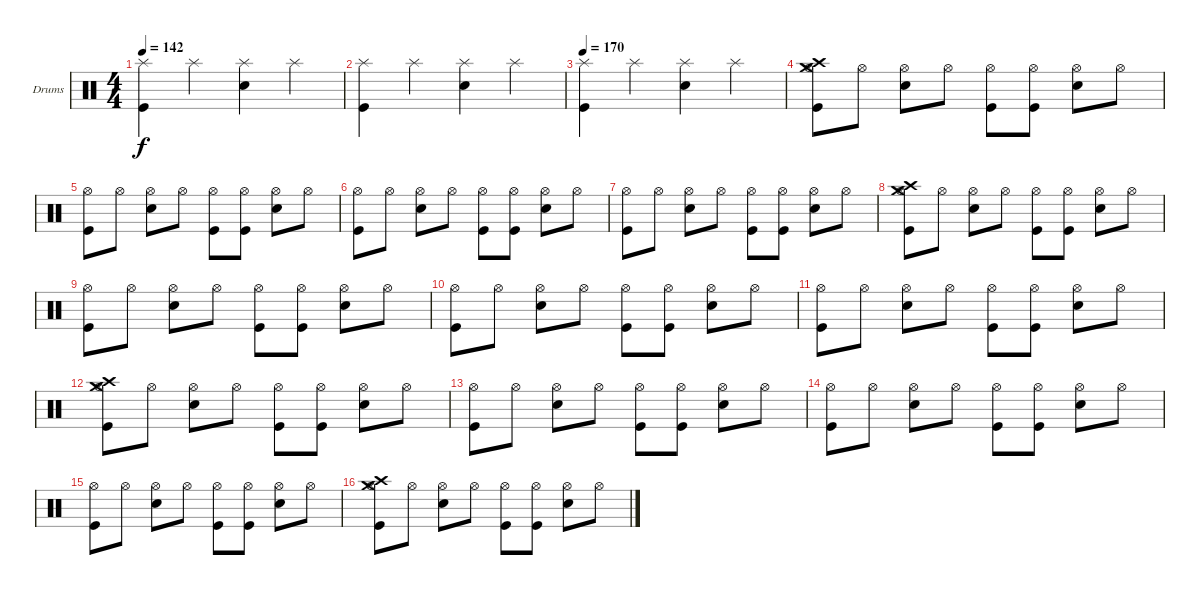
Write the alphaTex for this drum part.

\bracketExtendMode groupsimilarinstruments
\firstSystemTrackNameOrientation horizontal
\otherSystemsTrackNameOrientation horizontal
\track ("Drumkit" "Drums") {instrument percussion}
\staff {score}
\articulation defaults
\ts (4 4)
\tempo 142
\clef neutral
\ks c
("Splash (hit)" "Kick (hit)").4{dy f} "Splash (hit)".4 ("Splash (hit)" "Snare (hit) 2").4 "Splash (hit)".4 |
("Splash (hit)" "Kick (hit)").4 "Splash (hit)".4 ("Splash (hit)" "Snare (hit) 2").4 "Splash (hit)".4 |
\tempo 170
("Splash (hit)" "Kick (hit)").4 "Splash (hit)".4 ("Splash (hit)" "Snare (hit) 2").4 "Splash (hit)".4 |
("Crash high (hit)" "Crash medium (hit)" "Hi-Hat (open)" "Kick (hit)").8 "Hi-Hat (open)".8 ("Hi-Hat (open)" "Snare (hit) 2").8 "Hi-Hat (open)".8 ("Hi-Hat (open)" "Kick (hit)").8 ("Hi-Hat (open)" "Kick (hit)").8 ("Hi-Hat (open)" "Snare (hit) 2").8 "Hi-Hat (open)".8 |
("Hi-Hat (open)" "Kick (hit)").8 "Hi-Hat (open)".8 ("Hi-Hat (open)" "Snare (hit) 2").8 "Hi-Hat (open)".8 ("Hi-Hat (open)" "Kick (hit)").8 ("Hi-Hat (open)" "Kick (hit)").8 ("Hi-Hat (open)" "Snare (hit) 2").8 "Hi-Hat (open)".8 |
("Hi-Hat (open)" "Kick (hit)").8 "Hi-Hat (open)".8 ("Hi-Hat (open)" "Snare (hit) 2").8 "Hi-Hat (open)".8 ("Hi-Hat (open)" "Kick (hit)").8 ("Hi-Hat (open)" "Kick (hit)").8 ("Hi-Hat (open)" "Snare (hit) 2").8 "Hi-Hat (open)".8 |
("Hi-Hat (open)" "Kick (hit)").8 "Hi-Hat (open)".8 ("Hi-Hat (open)" "Snare (hit) 2").8 "Hi-Hat (open)".8 ("Hi-Hat (open)" "Kick (hit)").8 ("Hi-Hat (open)" "Kick (hit)").8 ("Hi-Hat (open)" "Snare (hit) 2").8 "Hi-Hat (open)".8 |
("Crash high (hit)" "Crash medium (hit)" "Hi-Hat (open)" "Kick (hit)").8 "Hi-Hat (open)".8 ("Hi-Hat (open)" "Snare (hit) 2").8 "Hi-Hat (open)".8 ("Hi-Hat (open)" "Kick (hit)").8 ("Hi-Hat (open)" "Kick (hit)").8 ("Hi-Hat (open)" "Snare (hit) 2").8 "Hi-Hat (open)".8 |
("Hi-Hat (open)" "Kick (hit)").8 "Hi-Hat (open)".8 ("Hi-Hat (open)" "Snare (hit) 2").8 "Hi-Hat (open)".8 ("Hi-Hat (open)" "Kick (hit)").8 ("Hi-Hat (open)" "Kick (hit)").8 ("Hi-Hat (open)" "Snare (hit) 2").8 "Hi-Hat (open)".8 |
("Hi-Hat (open)" "Kick (hit)").8 "Hi-Hat (open)".8 ("Hi-Hat (open)" "Snare (hit) 2").8 "Hi-Hat (open)".8 ("Hi-Hat (open)" "Kick (hit)").8 ("Hi-Hat (open)" "Kick (hit)").8 ("Hi-Hat (open)" "Snare (hit) 2").8 "Hi-Hat (open)".8 |
("Hi-Hat (open)" "Kick (hit)").8 "Hi-Hat (open)".8 ("Hi-Hat (open)" "Snare (hit) 2").8 "Hi-Hat (open)".8 ("Hi-Hat (open)" "Kick (hit)").8 ("Hi-Hat (open)" "Kick (hit)").8 ("Hi-Hat (open)" "Snare (hit) 2").8 "Hi-Hat (open)".8 |
("Crash high (hit)" "Crash medium (hit)" "Hi-Hat (open)" "Kick (hit)").8 "Hi-Hat (open)".8 ("Hi-Hat (open)" "Snare (hit) 2").8 "Hi-Hat (open)".8 ("Hi-Hat (open)" "Kick (hit)").8 ("Hi-Hat (open)" "Kick (hit)").8 ("Hi-Hat (open)" "Snare (hit) 2").8 "Hi-Hat (open)".8 |
("Hi-Hat (open)" "Kick (hit)").8 "Hi-Hat (open)".8 ("Hi-Hat (open)" "Snare (hit) 2").8 "Hi-Hat (open)".8 ("Hi-Hat (open)" "Kick (hit)").8 ("Hi-Hat (open)" "Kick (hit)").8 ("Hi-Hat (open)" "Snare (hit) 2").8 "Hi-Hat (open)".8 |
("Hi-Hat (open)" "Kick (hit)").8 "Hi-Hat (open)".8 ("Hi-Hat (open)" "Snare (hit) 2").8 "Hi-Hat (open)".8 ("Hi-Hat (open)" "Kick (hit)").8 ("Hi-Hat (open)" "Kick (hit)").8 ("Hi-Hat (open)" "Snare (hit) 2").8 "Hi-Hat (open)".8 |
("Hi-Hat (open)" "Kick (hit)").8 "Hi-Hat (open)".8 ("Hi-Hat (open)" "Snare (hit) 2").8 "Hi-Hat (open)".8 ("Hi-Hat (open)" "Kick (hit)").8 ("Hi-Hat (open)" "Kick (hit)").8 ("Hi-Hat (open)" "Snare (hit) 2").8 "Hi-Hat (open)".8 |
("Crash high (hit)" "Crash medium (hit)" "Hi-Hat (open)" "Kick (hit)").8 "Hi-Hat (open)".8 ("Hi-Hat (open)" "Snare (hit) 2").8 "Hi-Hat (open)".8 ("Hi-Hat (open)" "Kick (hit)").8 ("Hi-Hat (open)" "Kick (hit)").8 ("Hi-Hat (open)" "Snare (hit) 2").8 "Hi-Hat (open)".8
